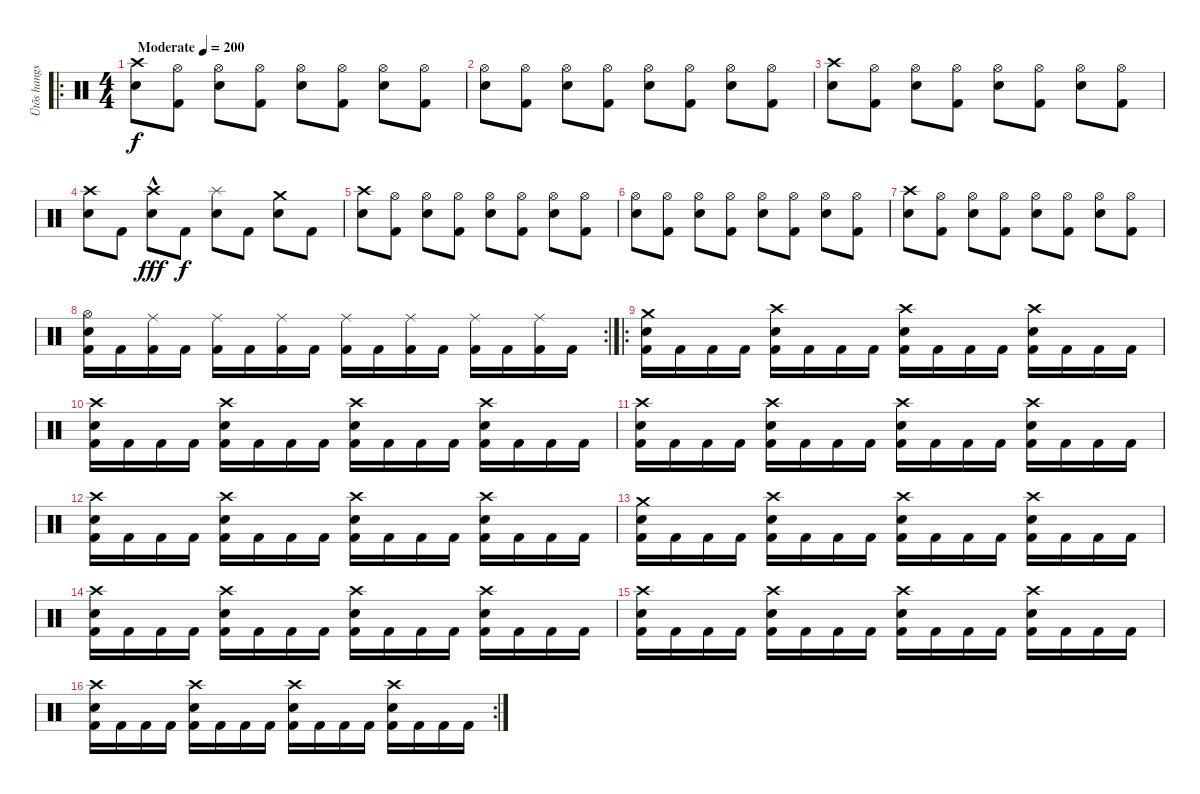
\track ("Ütõs hangszer" "Ütõs hangs") {instrument percussion}
\staff {score}
\articulation defaults
\ro
\ts (4 4)
\tempo (200 "Moderate")
\clef neutral
\ks c
("Crash high (hit)" "Snare (hit) 2").8{dy f} ("Hi-Hat (open)" "Kick (hit) 2").8 ("Hi-Hat (open)" "Snare (hit) 2").8 ("Hi-Hat (open)" "Kick (hit) 2").8 ("Hi-Hat (open)" "Snare (hit) 2").8 ("Hi-Hat (open)" "Kick (hit) 2").8 ("Hi-Hat (open)" "Snare (hit) 2").8 ("Hi-Hat (open)" "Kick (hit) 2").8 |
("Hi-Hat (open)" "Snare (hit) 2").8 ("Hi-Hat (open)" "Kick (hit) 2").8 ("Hi-Hat (open)" "Snare (hit) 2").8 ("Hi-Hat (open)" "Kick (hit) 2").8 ("Hi-Hat (open)" "Snare (hit) 2").8 ("Hi-Hat (open)" "Kick (hit) 2").8 ("Hi-Hat (open)" "Snare (hit) 2").8 ("Hi-Hat (open)" "Kick (hit) 2").8 |
("Crash high (hit)" "Snare (hit) 2").8 ("Hi-Hat (open)" "Kick (hit) 2").8 ("Hi-Hat (open)" "Snare (hit) 2").8 ("Hi-Hat (open)" "Kick (hit) 2").8 ("Hi-Hat (open)" "Snare (hit) 2").8 ("Hi-Hat (open)" "Kick (hit) 2").8 ("Hi-Hat (open)" "Snare (hit) 2").8 ("Hi-Hat (open)" "Kick (hit) 2").8 |
("Crash high (hit)" "Snare (hit) 2").8 "Kick (hit) 2".8 ("Crash high (hit)"{hac} "Snare (hit) 2").8{dy fff} "Kick (hit) 2".8{dy f} ("Splash (hit)" "Snare (hit) 2").8 "Kick (hit) 2".8 ("Crash medium (hit)" "Snare (hit) 2").8 "Kick (hit) 2".8 |
("Crash high (hit)" "Snare (hit) 2").8 ("Hi-Hat (open)" "Kick (hit) 2").8 ("Hi-Hat (open)" "Snare (hit) 2").8 ("Hi-Hat (open)" "Kick (hit) 2").8 ("Hi-Hat (open)" "Snare (hit) 2").8 ("Hi-Hat (open)" "Kick (hit) 2").8 ("Hi-Hat (open)" "Snare (hit) 2").8 ("Hi-Hat (open)" "Kick (hit) 2").8 |
("Hi-Hat (open)" "Snare (hit) 2").8 ("Hi-Hat (open)" "Kick (hit) 2").8 ("Hi-Hat (open)" "Snare (hit) 2").8 ("Hi-Hat (open)" "Kick (hit) 2").8 ("Hi-Hat (open)" "Snare (hit) 2").8 ("Hi-Hat (open)" "Kick (hit) 2").8 ("Hi-Hat (open)" "Snare (hit) 2").8 ("Hi-Hat (open)" "Kick (hit) 2").8 |
("Crash high (hit)" "Snare (hit) 2").8 ("Hi-Hat (open)" "Kick (hit) 2").8 ("Hi-Hat (open)" "Snare (hit) 2").8 ("Hi-Hat (open)" "Kick (hit) 2").8 ("Hi-Hat (open)" "Snare (hit) 2").8 ("Hi-Hat (open)" "Kick (hit) 2").8 ("Hi-Hat (open)" "Snare (hit) 2").8 ("Hi-Hat (open)" "Kick (hit) 2").8 |
\rc 2
("Hi-Hat (open)" "Snare (hit) 2" "Kick (hit) 2").16 "Kick (hit) 2".16 ("Ride (middle)" "Kick (hit) 2").16 "Kick (hit) 2".16 ("Ride (middle)" "Kick (hit) 2").16 "Kick (hit) 2".16 ("Ride (middle)" "Kick (hit) 2").16 "Kick (hit) 2".16 ("Ride (middle)" "Kick (hit) 2").16 "Kick (hit) 2".16 ("Ride (middle)" "Kick (hit) 2").16 "Kick (hit) 2".16 ("Ride (middle)" "Kick (hit) 2").16 "Kick (hit) 2".16 ("Ride (middle)" "Kick (hit) 2").16 "Kick (hit) 2".16 |
\ro
("Crash medium (hit)" "Snare (hit) 2" "Kick (hit) 2").16 "Kick (hit) 2".16 "Kick (hit) 2".16 "Kick (hit) 2".16 ("Crash high (hit)" "Snare (hit) 2" "Kick (hit) 2").16 "Kick (hit) 2".16 "Kick (hit) 2".16 "Kick (hit) 2".16 ("Crash high (hit)" "Snare (hit) 2" "Kick (hit) 2").16 "Kick (hit) 2".16 "Kick (hit) 2".16 "Kick (hit) 2".16 ("Crash high (hit)" "Snare (hit) 2" "Kick (hit) 2").16 "Kick (hit) 2".16 "Kick (hit) 2".16 "Kick (hit) 2".16 |
("Crash high (hit)" "Snare (hit) 2" "Kick (hit) 2").16 "Kick (hit) 2".16 "Kick (hit) 2".16 "Kick (hit) 2".16 ("Crash high (hit)" "Snare (hit) 2" "Kick (hit) 2").16 "Kick (hit) 2".16 "Kick (hit) 2".16 "Kick (hit) 2".16 ("Crash high (hit)" "Snare (hit) 2" "Kick (hit) 2").16 "Kick (hit) 2".16 "Kick (hit) 2".16 "Kick (hit) 2".16 ("Crash high (hit)" "Snare (hit) 2" "Kick (hit) 2").16 "Kick (hit) 2".16 "Kick (hit) 2".16 "Kick (hit) 2".16 |
("Crash high (hit)" "Snare (hit) 2" "Kick (hit) 2").16 "Kick (hit) 2".16 "Kick (hit) 2".16 "Kick (hit) 2".16 ("Crash high (hit)" "Snare (hit) 2" "Kick (hit) 2").16 "Kick (hit) 2".16 "Kick (hit) 2".16 "Kick (hit) 2".16 ("Crash high (hit)" "Snare (hit) 2" "Kick (hit) 2").16 "Kick (hit) 2".16 "Kick (hit) 2".16 "Kick (hit) 2".16 ("Crash high (hit)" "Snare (hit) 2" "Kick (hit) 2").16 "Kick (hit) 2".16 "Kick (hit) 2".16 "Kick (hit) 2".16 |
("Crash high (hit)" "Snare (hit) 2" "Kick (hit) 2").16 "Kick (hit) 2".16 "Kick (hit) 2".16 "Kick (hit) 2".16 ("Crash high (hit)" "Snare (hit) 2" "Kick (hit) 2").16 "Kick (hit) 2".16 "Kick (hit) 2".16 "Kick (hit) 2".16 ("Crash high (hit)" "Snare (hit) 2" "Kick (hit) 2").16 "Kick (hit) 2".16 "Kick (hit) 2".16 "Kick (hit) 2".16 ("Crash high (hit)" "Snare (hit) 2" "Kick (hit) 2").16 "Kick (hit) 2".16 "Kick (hit) 2".16 "Kick (hit) 2".16 |
("Crash medium (hit)" "Snare (hit) 2" "Kick (hit) 2").16 "Kick (hit) 2".16 "Kick (hit) 2".16 "Kick (hit) 2".16 ("Crash high (hit)" "Snare (hit) 2" "Kick (hit) 2").16 "Kick (hit) 2".16 "Kick (hit) 2".16 "Kick (hit) 2".16 ("Crash high (hit)" "Snare (hit) 2" "Kick (hit) 2").16 "Kick (hit) 2".16 "Kick (hit) 2".16 "Kick (hit) 2".16 ("Crash high (hit)" "Snare (hit) 2" "Kick (hit) 2").16 "Kick (hit) 2".16 "Kick (hit) 2".16 "Kick (hit) 2".16 |
("Crash high (hit)" "Snare (hit) 2" "Kick (hit) 2").16 "Kick (hit) 2".16 "Kick (hit) 2".16 "Kick (hit) 2".16 ("Crash high (hit)" "Snare (hit) 2" "Kick (hit) 2").16 "Kick (hit) 2".16 "Kick (hit) 2".16 "Kick (hit) 2".16 ("Crash high (hit)" "Snare (hit) 2" "Kick (hit) 2").16 "Kick (hit) 2".16 "Kick (hit) 2".16 "Kick (hit) 2".16 ("Crash high (hit)" "Snare (hit) 2" "Kick (hit) 2").16 "Kick (hit) 2".16 "Kick (hit) 2".16 "Kick (hit) 2".16 |
("Crash high (hit)" "Snare (hit) 2" "Kick (hit) 2").16 "Kick (hit) 2".16 "Kick (hit) 2".16 "Kick (hit) 2".16 ("Crash high (hit)" "Snare (hit) 2" "Kick (hit) 2").16 "Kick (hit) 2".16 "Kick (hit) 2".16 "Kick (hit) 2".16 ("Crash high (hit)" "Snare (hit) 2" "Kick (hit) 2").16 "Kick (hit) 2".16 "Kick (hit) 2".16 "Kick (hit) 2".16 ("Crash high (hit)" "Snare (hit) 2" "Kick (hit) 2").16 "Kick (hit) 2".16 "Kick (hit) 2".16 "Kick (hit) 2".16 |
\rc 2
("Crash high (hit)" "Snare (hit) 2" "Kick (hit) 2").16 "Kick (hit) 2".16 "Kick (hit) 2".16 "Kick (hit) 2".16 ("Crash high (hit)" "Snare (hit) 2" "Kick (hit) 2").16 "Kick (hit) 2".16 "Kick (hit) 2".16 "Kick (hit) 2".16 ("Crash high (hit)" "Snare (hit) 2" "Kick (hit) 2").16 "Kick (hit) 2".16 "Kick (hit) 2".16 "Kick (hit) 2".16 ("Crash high (hit)" "Snare (hit) 2" "Kick (hit) 2").16 "Kick (hit) 2".16 "Kick (hit) 2".16 "Kick (hit) 2".16
